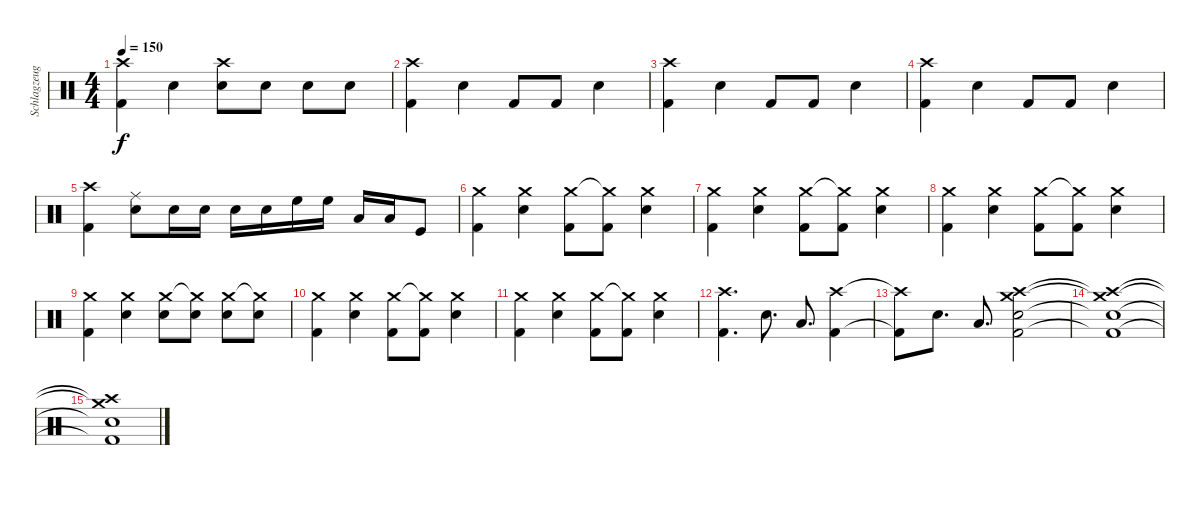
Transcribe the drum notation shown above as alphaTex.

\track ("Schlagzeug" "Schlagzeug") {instrument percussion}
\staff {score}
\articulation defaults
\ts (4 4)
\tempo 150
\clef neutral
\ks c
("Crash high (hit)" "Kick (hit) 2").4{dy f} "Snare (hit) 2".4 ("Crash high (hit)" "Snare (hit) 2").8 "Snare (hit) 2".8 "Snare (hit) 2".8 "Snare (hit) 2".8 |
("Crash high (hit)" "Kick (hit) 2").4 "Snare (hit) 2".4 "Kick (hit) 2".8 "Kick (hit) 2".8 "Snare (hit) 2".4 |
("Crash high (hit)" "Kick (hit) 2").4 "Snare (hit) 2".4 "Kick (hit) 2".8 "Kick (hit) 2".8 "Snare (hit) 2".4 |
("Crash high (hit)" "Kick (hit) 2").4 "Snare (hit) 2".4 "Kick (hit) 2".8 "Kick (hit) 2".8 "Snare (hit) 2".4 |
("Crash high (hit)" "Kick (hit) 2").4 ("Ride (middle)" "Snare (hit) 2").8 "Snare (hit) 2".16 "Snare (hit) 2".16 "Snare (hit) 2".16 "Snare (hit) 2".16 "High Floor Tom (hit)".16 "High Floor Tom (hit)".16 "Low Tom (hit)".16 "Low Tom (hit)".16 "Kick (hit)".8 |
("Crash medium (hit)" "Kick (hit) 2").4 ("Crash medium (hit)" "Snare (hit) 2").4 ("Crash medium (hit)" "Kick (hit) 2").8 ("Crash medium (hit)"{t} "Kick (hit) 2").8 ("Crash medium (hit)" "Snare (hit) 2").4 |
("Crash medium (hit)" "Kick (hit) 2").4 ("Crash medium (hit)" "Snare (hit) 2").4 ("Crash medium (hit)" "Kick (hit) 2").8 ("Crash medium (hit)"{t} "Kick (hit) 2").8 ("Crash medium (hit)" "Snare (hit) 2").4 |
("Crash medium (hit)" "Kick (hit) 2").4 ("Crash medium (hit)" "Snare (hit) 2").4 ("Crash medium (hit)" "Kick (hit) 2").8 ("Crash medium (hit)"{t} "Kick (hit) 2").8 ("Crash medium (hit)" "Snare (hit) 2").4 |
("Crash medium (hit)" "Kick (hit) 2").4 ("Crash medium (hit)" "Snare (hit) 2").4 ("Crash medium (hit)" "Snare (hit) 2").8 ("Crash medium (hit)"{t} "Snare (hit) 2").8 ("Crash medium (hit)" "Snare (hit) 2").8 ("Crash medium (hit)"{t} "Snare (hit) 2").8 |
("Crash medium (hit)" "Kick (hit) 2").4 ("Crash medium (hit)" "Snare (hit) 2").4 ("Crash medium (hit)" "Kick (hit) 2").8 ("Crash medium (hit)"{t} "Kick (hit) 2").8 ("Crash medium (hit)" "Snare (hit) 2").4 |
("Crash medium (hit)" "Kick (hit) 2").4 ("Crash medium (hit)" "Snare (hit) 2").4 ("Crash medium (hit)" "Kick (hit) 2").8 ("Crash medium (hit)"{t} "Kick (hit) 2").8 ("Crash medium (hit)" "Snare (hit) 2").4 |
("Crash high (hit)" "Kick (hit) 2").4{d} "Snare (hit) 2".8{d} "Low Tom (hit)".8{d} ("Crash high (hit)" "Kick (hit) 2").4 |
("Crash high (hit)"{t} "Kick (hit) 2"{t}).8 "Snare (hit) 2".8{d} "Low Tom (hit)".8{d} ("Crash medium (hit)" "Crash high (hit)" "Snare (hit) 2" "Kick (hit) 2").2 |
("Crash medium (hit)"{t} "Crash high (hit)"{t} "Snare (hit) 2"{t} "Kick (hit) 2"{t}).1 |
("Crash medium (hit)"{t} "Crash high (hit)"{t} "Snare (hit) 2"{t} "Kick (hit) 2"{t}).1
